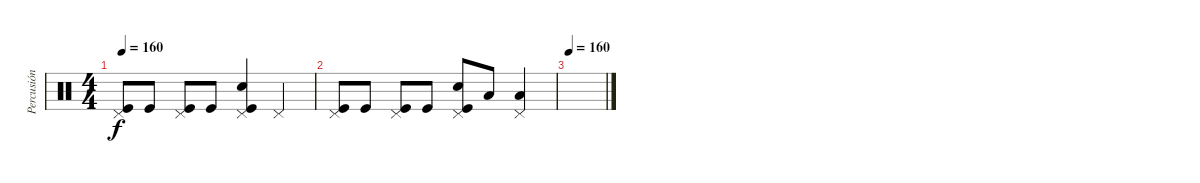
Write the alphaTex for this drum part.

\track ("Percusión" "Percusión") {instrument percussion}
\staff {score}
\articulation defaults
\ts (4 4)
\tempo 160
\clef neutral
\ks c
("Kick (hit)" "Pedal Hi-Hat (hit)").8{dy f} "Kick (hit)".8 ("Kick (hit)" "Pedal Hi-Hat (hit)").8 "Kick (hit)".8 ("Kick (hit)" "Pedal Hi-Hat (hit)" "Snare (hit) 2").4 "Pedal Hi-Hat (hit)".4 |
("Kick (hit)" "Pedal Hi-Hat (hit)").8 "Kick (hit)".8 ("Kick (hit)" "Pedal Hi-Hat (hit)").8 "Kick (hit)".8 ("Kick (hit)" "Pedal Hi-Hat (hit)" "Snare (hit) 2").8 "Low Tom (hit)".8 ("Low Floor Tom (hit)" "Pedal Hi-Hat (hit)").4 |
\tempo 160
